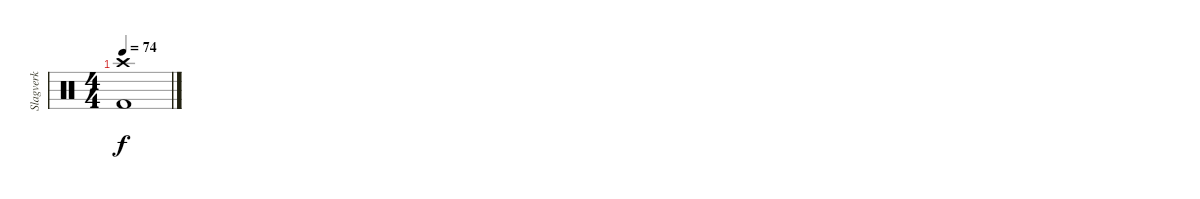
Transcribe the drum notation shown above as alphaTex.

\track ("Slagverk" "Slagverk") {instrument percussion}
\staff {score}
\articulation defaults
\ts (4 4)
\tempo 74
\clef neutral
\ks c
("Crash high (hit)" "Kick (hit) 2").1{dy f}
